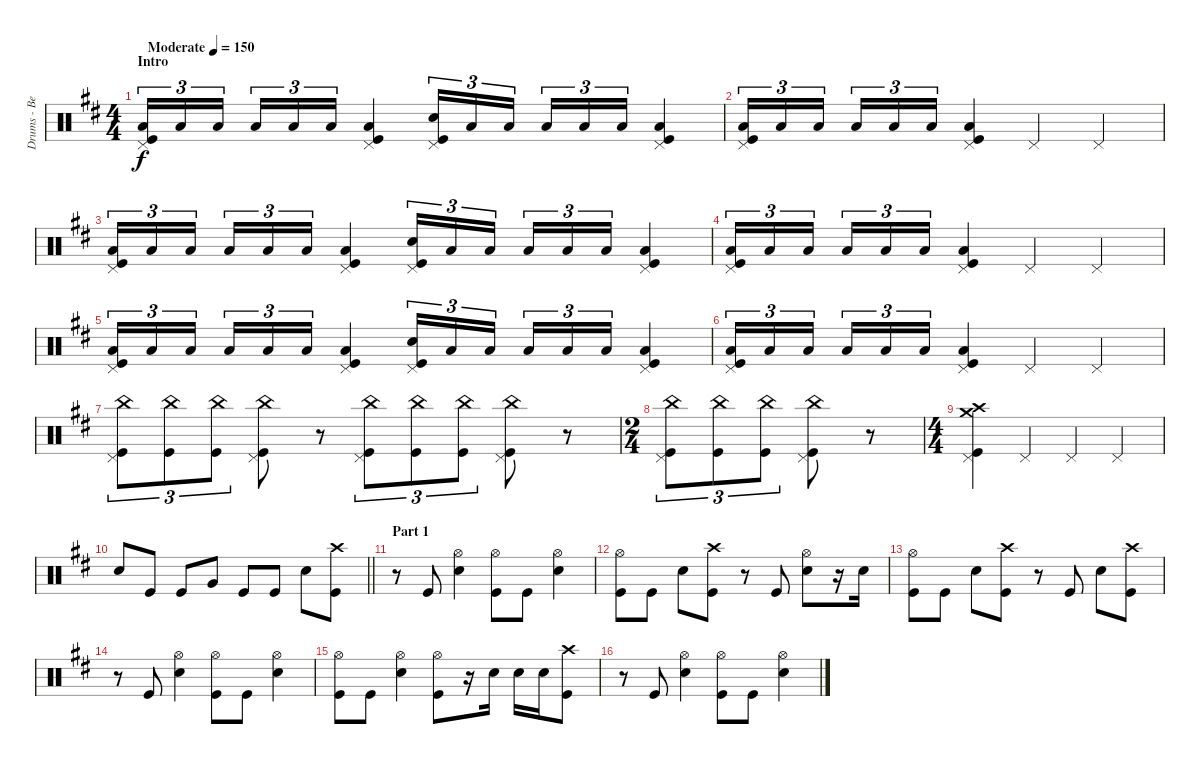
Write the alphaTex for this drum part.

\track ("Drums - Ben Johnston" "Drums - Be") {instrument percussion}
\staff {score}
\articulation defaults
\ts (4 4)
\section ("" "Intro")
\tempo (150 "Moderate")
\clef neutral
\ks d
("Low Floor Tom (hit)" "Pedal Hi-Hat (hit)" "Kick (hit)").16{tu (3 2) dy f} "Low Floor Tom (hit)".16{tu (3 2)} "Low Floor Tom (hit)".16{tu (3 2) beam splitsecondary} "Low Floor Tom (hit)".16{tu (3 2)} "Low Floor Tom (hit)".16{tu (3 2)} "Low Floor Tom (hit)".16{tu (3 2)} ("Low Floor Tom (hit)" "Pedal Hi-Hat (hit)" "Kick (hit)").4 ("Snare (hit) 2" "Pedal Hi-Hat (hit)" "Kick (hit)").16{tu (3 2)} "Low Floor Tom (hit)".16{tu (3 2)} "Low Floor Tom (hit)".16{tu (3 2) beam splitsecondary} "Low Floor Tom (hit)".16{tu (3 2)} "Low Floor Tom (hit)".16{tu (3 2)} "Low Floor Tom (hit)".16{tu (3 2)} ("Low Floor Tom (hit)" "Pedal Hi-Hat (hit)" "Kick (hit)").4 |
("Low Floor Tom (hit)" "Pedal Hi-Hat (hit)" "Kick (hit)").16{tu (3 2)} "Low Floor Tom (hit)".16{tu (3 2)} "Low Floor Tom (hit)".16{tu (3 2) beam splitsecondary} "Low Floor Tom (hit)".16{tu (3 2)} "Low Floor Tom (hit)".16{tu (3 2)} "Low Floor Tom (hit)".16{tu (3 2)} ("Low Floor Tom (hit)" "Pedal Hi-Hat (hit)" "Kick (hit)").4 "Pedal Hi-Hat (hit)".4 "Pedal Hi-Hat (hit)".4 |
("Low Floor Tom (hit)" "Pedal Hi-Hat (hit)" "Kick (hit)").16{tu (3 2)} "Low Floor Tom (hit)".16{tu (3 2)} "Low Floor Tom (hit)".16{tu (3 2) beam splitsecondary} "Low Floor Tom (hit)".16{tu (3 2)} "Low Floor Tom (hit)".16{tu (3 2)} "Low Floor Tom (hit)".16{tu (3 2)} ("Low Floor Tom (hit)" "Pedal Hi-Hat (hit)" "Kick (hit)").4 ("Snare (hit) 2" "Pedal Hi-Hat (hit)" "Kick (hit)").16{tu (3 2)} "Low Floor Tom (hit)".16{tu (3 2)} "Low Floor Tom (hit)".16{tu (3 2) beam splitsecondary} "Low Floor Tom (hit)".16{tu (3 2)} "Low Floor Tom (hit)".16{tu (3 2)} "Low Floor Tom (hit)".16{tu (3 2)} ("Low Floor Tom (hit)" "Pedal Hi-Hat (hit)" "Kick (hit)").4 |
("Low Floor Tom (hit)" "Pedal Hi-Hat (hit)" "Kick (hit)").16{tu (3 2)} "Low Floor Tom (hit)".16{tu (3 2)} "Low Floor Tom (hit)".16{tu (3 2) beam splitsecondary} "Low Floor Tom (hit)".16{tu (3 2)} "Low Floor Tom (hit)".16{tu (3 2)} "Low Floor Tom (hit)".16{tu (3 2)} ("Low Floor Tom (hit)" "Pedal Hi-Hat (hit)" "Kick (hit)").4 "Pedal Hi-Hat (hit)".4 "Pedal Hi-Hat (hit)".4 |
("Low Floor Tom (hit)" "Pedal Hi-Hat (hit)" "Kick (hit)").16{tu (3 2)} "Low Floor Tom (hit)".16{tu (3 2)} "Low Floor Tom (hit)".16{tu (3 2) beam splitsecondary} "Low Floor Tom (hit)".16{tu (3 2)} "Low Floor Tom (hit)".16{tu (3 2)} "Low Floor Tom (hit)".16{tu (3 2)} ("Low Floor Tom (hit)" "Pedal Hi-Hat (hit)" "Kick (hit)").4 ("Snare (hit) 2" "Pedal Hi-Hat (hit)" "Kick (hit)").16{tu (3 2)} "Low Floor Tom (hit)".16{tu (3 2)} "Low Floor Tom (hit)".16{tu (3 2) beam splitsecondary} "Low Floor Tom (hit)".16{tu (3 2)} "Low Floor Tom (hit)".16{tu (3 2)} "Low Floor Tom (hit)".16{tu (3 2)} ("Low Floor Tom (hit)" "Pedal Hi-Hat (hit)" "Kick (hit)").4 |
("Low Floor Tom (hit)" "Pedal Hi-Hat (hit)" "Kick (hit)").16{tu (3 2)} "Low Floor Tom (hit)".16{tu (3 2)} "Low Floor Tom (hit)".16{tu (3 2) beam splitsecondary} "Low Floor Tom (hit)".16{tu (3 2)} "Low Floor Tom (hit)".16{tu (3 2)} "Low Floor Tom (hit)".16{tu (3 2)} ("Low Floor Tom (hit)" "Pedal Hi-Hat (hit)" "Kick (hit)").4 "Pedal Hi-Hat (hit)".4 "Pedal Hi-Hat (hit)".4 |
("China (hit)" "Pedal Hi-Hat (hit)" "Kick (hit)").8{tu (3 2)} ("China (hit)" "Kick (hit)").8{tu (3 2)} ("China (hit)" "Kick (hit)").8{tu (3 2)} ("China (hit)" "Pedal Hi-Hat (hit)" "Kick (hit)").8 r.8 ("China (hit)" "Pedal Hi-Hat (hit)" "Kick (hit)").8{tu (3 2)} ("China (hit)" "Kick (hit)").8{tu (3 2)} ("China (hit)" "Kick (hit)").8{tu (3 2)} ("China (hit)" "Pedal Hi-Hat (hit)" "Kick (hit)").8 r.8 |
\ts (2 4)
("China (hit)" "Pedal Hi-Hat (hit)" "Kick (hit)").8{tu (3 2)} ("China (hit)" "Kick (hit)").8{tu (3 2)} ("China (hit)" "Kick (hit)").8{tu (3 2)} ("China (hit)" "Pedal Hi-Hat (hit)" "Kick (hit)").8 r.8 |
\ts (4 4)
("Crash high (hit)" "Crash medium (hit)" "Pedal Hi-Hat (hit)" "Kick (hit)").4 "Pedal Hi-Hat (hit)".4 "Pedal Hi-Hat (hit)".4 "Pedal Hi-Hat (hit)".4 |
\barLineRight lightlight "Snare (hit) 2".8 "Kick (hit)".8 "Kick (hit)".8 "Very Low Tom (hit)".8 "Kick (hit)".8 "Kick (hit)".8 "Snare (hit) 2".8
("Crash high (hit)" "Kick (hit)").8 |
\section ("" "Part 1")
r.8 "Kick (hit)".8 ("Hi-Hat (open)" "Snare (hit) 2").4 ("Hi-Hat (open)" "Kick (hit)").8 "Kick (hit)".8 ("Hi-Hat (open)" "Snare (hit) 2").4 |
("Hi-Hat (open)" "Kick (hit)").8 "Kick (hit)".8 "Snare (hit) 2".8 ("Crash high (hit)" "Kick (hit)").8 r.8 "Kick (hit)".8 ("Hi-Hat (open)" "Snare (hit) 2").8 r.16 "Snare (hit) 2".16 |
("Hi-Hat (open)" "Kick (hit)").8 "Kick (hit)".8 "Snare (hit) 2".8 ("Crash high (hit)" "Kick (hit)").8 r.8 "Kick (hit)".8 "Snare (hit) 2".8 ("Crash high (hit)" "Kick (hit)").8 |
r.8 "Kick (hit)".8 ("Hi-Hat (open)" "Snare (hit) 2").4 ("Hi-Hat (open)" "Kick (hit)").8 "Kick (hit)".8 ("Hi-Hat (open)" "Snare (hit) 2").4 |
("Hi-Hat (open)" "Kick (hit)").8 "Kick (hit)".8 ("Hi-Hat (open)" "Snare (hit) 2").4 ("Hi-Hat (open)" "Kick (hit)").8 r.16 "Snare (hit) 2".16 "Snare (hit) 2".16 "Snare (hit) 2".16 ("Crash high (hit)" "Kick (hit)").8 |
r.8 "Kick (hit)".8 ("Hi-Hat (open)" "Snare (hit) 2").4 ("Hi-Hat (open)" "Kick (hit)").8 "Kick (hit)".8 ("Hi-Hat (open)" "Snare (hit) 2").4
